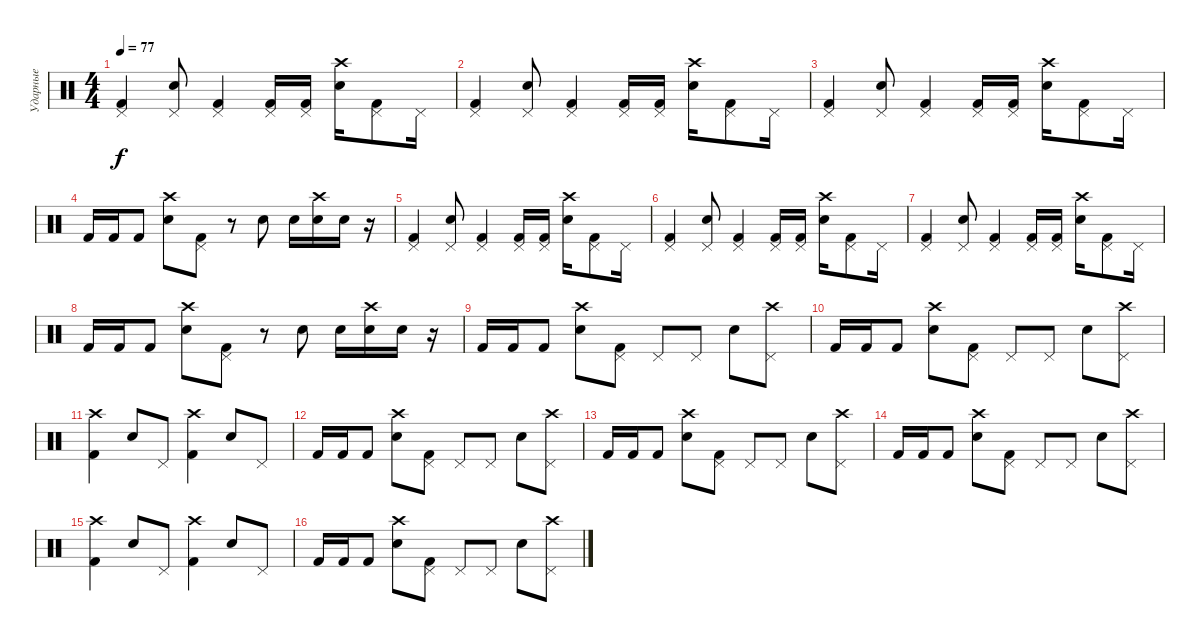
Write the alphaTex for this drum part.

\track ("Ударные" "Ударные") {instrument percussion}
\staff {score}
\articulation defaults
\ts (4 4)
\tempo 77
\clef neutral
\ks c
("Kick (hit) 2" "Pedal Hi-Hat (hit)").4{dy f} ("Snare (hit) 2" "Pedal Hi-Hat (hit)").8 ("Kick (hit) 2" "Pedal Hi-Hat (hit)").4 ("Kick (hit) 2" "Pedal Hi-Hat (hit)").16 ("Kick (hit) 2" "Pedal Hi-Hat (hit)").16 ("Snare (hit) 2" "Crash high (hit)").16 ("Kick (hit) 2" "Pedal Hi-Hat (hit)").8 "Pedal Hi-Hat (hit)".16 |
("Kick (hit) 2" "Pedal Hi-Hat (hit)").4 ("Snare (hit) 2" "Pedal Hi-Hat (hit)").8 ("Kick (hit) 2" "Pedal Hi-Hat (hit)").4 ("Kick (hit) 2" "Pedal Hi-Hat (hit)").16 ("Kick (hit) 2" "Pedal Hi-Hat (hit)").16 ("Snare (hit) 2" "Crash high (hit)").16 ("Kick (hit) 2" "Pedal Hi-Hat (hit)").8 "Pedal Hi-Hat (hit)".16 |
("Kick (hit) 2" "Pedal Hi-Hat (hit)").4 ("Snare (hit) 2" "Pedal Hi-Hat (hit)").8 ("Kick (hit) 2" "Pedal Hi-Hat (hit)").4 ("Kick (hit) 2" "Pedal Hi-Hat (hit)").16 ("Kick (hit) 2" "Pedal Hi-Hat (hit)").16 ("Snare (hit) 2" "Crash high (hit)").16 ("Kick (hit) 2" "Pedal Hi-Hat (hit)").8 "Pedal Hi-Hat (hit)".16 |
"Kick (hit) 2".16 "Kick (hit) 2".16 "Kick (hit) 2".8 ("Snare (hit) 2" "Crash high (hit)").8 ("Kick (hit) 2" "Pedal Hi-Hat (hit)").8 r.8 "Snare (hit) 2".8 "Snare (hit) 2".16 ("Snare (hit) 2" "Crash high (hit)").16 "Snare (hit) 2".16 r.16 |
("Kick (hit) 2" "Pedal Hi-Hat (hit)").4 ("Snare (hit) 2" "Pedal Hi-Hat (hit)").8 ("Kick (hit) 2" "Pedal Hi-Hat (hit)").4 ("Kick (hit) 2" "Pedal Hi-Hat (hit)").16 ("Kick (hit) 2" "Pedal Hi-Hat (hit)").16 ("Snare (hit) 2" "Crash high (hit)").16 ("Kick (hit) 2" "Pedal Hi-Hat (hit)").8 "Pedal Hi-Hat (hit)".16 |
("Kick (hit) 2" "Pedal Hi-Hat (hit)").4 ("Snare (hit) 2" "Pedal Hi-Hat (hit)").8 ("Kick (hit) 2" "Pedal Hi-Hat (hit)").4 ("Kick (hit) 2" "Pedal Hi-Hat (hit)").16 ("Kick (hit) 2" "Pedal Hi-Hat (hit)").16 ("Snare (hit) 2" "Crash high (hit)").16 ("Kick (hit) 2" "Pedal Hi-Hat (hit)").8 "Pedal Hi-Hat (hit)".16 |
("Kick (hit) 2" "Pedal Hi-Hat (hit)").4 ("Snare (hit) 2" "Pedal Hi-Hat (hit)").8 ("Kick (hit) 2" "Pedal Hi-Hat (hit)").4 ("Kick (hit) 2" "Pedal Hi-Hat (hit)").16 ("Kick (hit) 2" "Pedal Hi-Hat (hit)").16 ("Snare (hit) 2" "Crash high (hit)").16 ("Kick (hit) 2" "Pedal Hi-Hat (hit)").8 "Pedal Hi-Hat (hit)".16 |
"Kick (hit) 2".16 "Kick (hit) 2".16 "Kick (hit) 2".8 ("Snare (hit) 2" "Crash high (hit)").8 ("Kick (hit) 2" "Pedal Hi-Hat (hit)").8 r.8 "Snare (hit) 2".8 "Snare (hit) 2".16 ("Snare (hit) 2" "Crash high (hit)").16 "Snare (hit) 2".16 r.16 |
"Kick (hit) 2".16 "Kick (hit) 2".16 "Kick (hit) 2".8 ("Snare (hit) 2" "Crash high (hit)").8 ("Kick (hit) 2" "Pedal Hi-Hat (hit)").8 "Pedal Hi-Hat (hit)".8 "Pedal Hi-Hat (hit)".8 "Snare (hit) 2".8 ("Pedal Hi-Hat (hit)" "Crash high (hit)").8 |
"Kick (hit) 2".16 "Kick (hit) 2".16 "Kick (hit) 2".8 ("Snare (hit) 2" "Crash high (hit)").8 ("Kick (hit) 2" "Pedal Hi-Hat (hit)").8 "Pedal Hi-Hat (hit)".8 "Pedal Hi-Hat (hit)".8 "Snare (hit) 2".8 ("Pedal Hi-Hat (hit)" "Crash high (hit)").8 |
("Kick (hit) 2" "Crash high (hit)").4 "Snare (hit) 2".8 "Pedal Hi-Hat (hit)".8 ("Kick (hit) 2" "Crash high (hit)").4 "Snare (hit) 2".8 "Pedal Hi-Hat (hit)".8 |
"Kick (hit) 2".16 "Kick (hit) 2".16 "Kick (hit) 2".8 ("Snare (hit) 2" "Crash high (hit)").8 ("Kick (hit) 2" "Pedal Hi-Hat (hit)").8 "Pedal Hi-Hat (hit)".8 "Pedal Hi-Hat (hit)".8 "Snare (hit) 2".8 ("Pedal Hi-Hat (hit)" "Crash high (hit)").8 |
"Kick (hit) 2".16 "Kick (hit) 2".16 "Kick (hit) 2".8 ("Snare (hit) 2" "Crash high (hit)").8 ("Kick (hit) 2" "Pedal Hi-Hat (hit)").8 "Pedal Hi-Hat (hit)".8 "Pedal Hi-Hat (hit)".8 "Snare (hit) 2".8 ("Pedal Hi-Hat (hit)" "Crash high (hit)").8 |
"Kick (hit) 2".16 "Kick (hit) 2".16 "Kick (hit) 2".8 ("Snare (hit) 2" "Crash high (hit)").8 ("Kick (hit) 2" "Pedal Hi-Hat (hit)").8 "Pedal Hi-Hat (hit)".8 "Pedal Hi-Hat (hit)".8 "Snare (hit) 2".8 ("Pedal Hi-Hat (hit)" "Crash high (hit)").8 |
("Kick (hit) 2" "Crash high (hit)").4 "Snare (hit) 2".8 "Pedal Hi-Hat (hit)".8 ("Kick (hit) 2" "Crash high (hit)").4 "Snare (hit) 2".8 "Pedal Hi-Hat (hit)".8 |
"Kick (hit) 2".16 "Kick (hit) 2".16 "Kick (hit) 2".8 ("Snare (hit) 2" "Crash high (hit)").8 ("Kick (hit) 2" "Pedal Hi-Hat (hit)").8 "Pedal Hi-Hat (hit)".8 "Pedal Hi-Hat (hit)".8 "Snare (hit) 2".8 ("Pedal Hi-Hat (hit)" "Crash high (hit)").8
